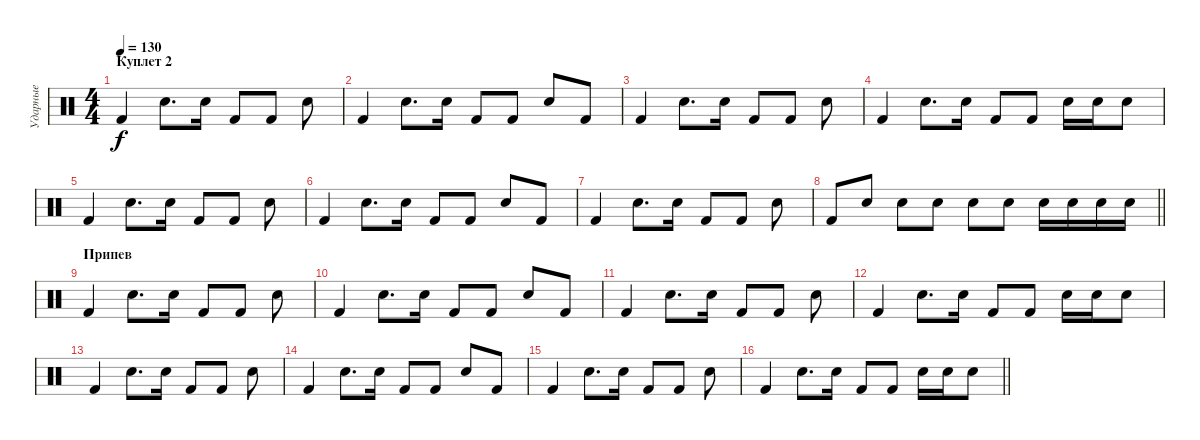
\track ("Ударные" "Ударные") {instrument percussion}
\staff {score}
\articulation defaults
\ts (4 4)
\section ("" "Куплет 2")
\tempo 130
\clef neutral
\ks c "Kick (hit) 2".4{dy f} "Electric Snare (hit)".8{d} "Electric Snare (hit)".16 "Kick (hit) 2".8 "Kick (hit) 2".8 "Electric Snare (hit)".8
|
"Kick (hit) 2".4 "Electric Snare (hit)".8{d} "Electric Snare (hit)".16 "Kick (hit) 2".8 "Kick (hit) 2".8 "Electric Snare (hit)".8 "Kick (hit) 2".8 |
"Kick (hit) 2".4 "Electric Snare (hit)".8{d} "Electric Snare (hit)".16 "Kick (hit) 2".8 "Kick (hit) 2".8 "Electric Snare (hit)".8 |
"Kick (hit) 2".4 "Electric Snare (hit)".8{d} "Electric Snare (hit)".16 "Kick (hit) 2".8 "Kick (hit) 2".8 "Electric Snare (hit)".16 "Electric Snare (hit)".16 "Electric Snare (hit)".8 |
"Kick (hit) 2".4 "Electric Snare (hit)".8{d} "Electric Snare (hit)".16 "Kick (hit) 2".8 "Kick (hit) 2".8 "Electric Snare (hit)".8 |
"Kick (hit) 2".4 "Electric Snare (hit)".8{d} "Electric Snare (hit)".16 "Kick (hit) 2".8 "Kick (hit) 2".8 "Electric Snare (hit)".8 "Kick (hit) 2".8 |
"Kick (hit) 2".4 "Electric Snare (hit)".8{d} "Electric Snare (hit)".16 "Kick (hit) 2".8 "Kick (hit) 2".8 "Electric Snare (hit)".8 |
\barLineRight lightlight "Kick (hit) 2".8 "Electric Snare (hit)".8 "Electric Snare (hit)".8 "Electric Snare (hit)".8 "Electric Snare (hit)".8 "Electric Snare (hit)".8 "Electric Snare (hit)".16 "Electric Snare (hit)".16 "Electric Snare (hit)".16 "Electric Snare (hit)".16
|
\section ("" "Припев")
"Kick (hit) 2".4 "Electric Snare (hit)".8{d} "Electric Snare (hit)".16 "Kick (hit) 2".8 "Kick (hit) 2".8 "Electric Snare (hit)".8 |
"Kick (hit) 2".4 "Electric Snare (hit)".8{d} "Electric Snare (hit)".16 "Kick (hit) 2".8 "Kick (hit) 2".8 "Electric Snare (hit)".8 "Kick (hit) 2".8 |
"Kick (hit) 2".4 "Electric Snare (hit)".8{d} "Electric Snare (hit)".16 "Kick (hit) 2".8 "Kick (hit) 2".8 "Electric Snare (hit)".8 |
"Kick (hit) 2".4 "Electric Snare (hit)".8{d} "Electric Snare (hit)".16 "Kick (hit) 2".8 "Kick (hit) 2".8 "Electric Snare (hit)".16 "Electric Snare (hit)".16 "Electric Snare (hit)".8 |
"Kick (hit) 2".4 "Electric Snare (hit)".8{d} "Electric Snare (hit)".16 "Kick (hit) 2".8 "Kick (hit) 2".8 "Electric Snare (hit)".8 |
"Kick (hit) 2".4 "Electric Snare (hit)".8{d} "Electric Snare (hit)".16 "Kick (hit) 2".8 "Kick (hit) 2".8 "Electric Snare (hit)".8 "Kick (hit) 2".8 |
"Kick (hit) 2".4 "Electric Snare (hit)".8{d} "Electric Snare (hit)".16 "Kick (hit) 2".8 "Kick (hit) 2".8 "Electric Snare (hit)".8 |
\barLineRight lightlight "Kick (hit) 2".4 "Electric Snare (hit)".8{d} "Electric Snare (hit)".16 "Kick (hit) 2".8 "Kick (hit) 2".8 "Electric Snare (hit)".16 "Electric Snare (hit)".16 "Electric Snare (hit)".8
